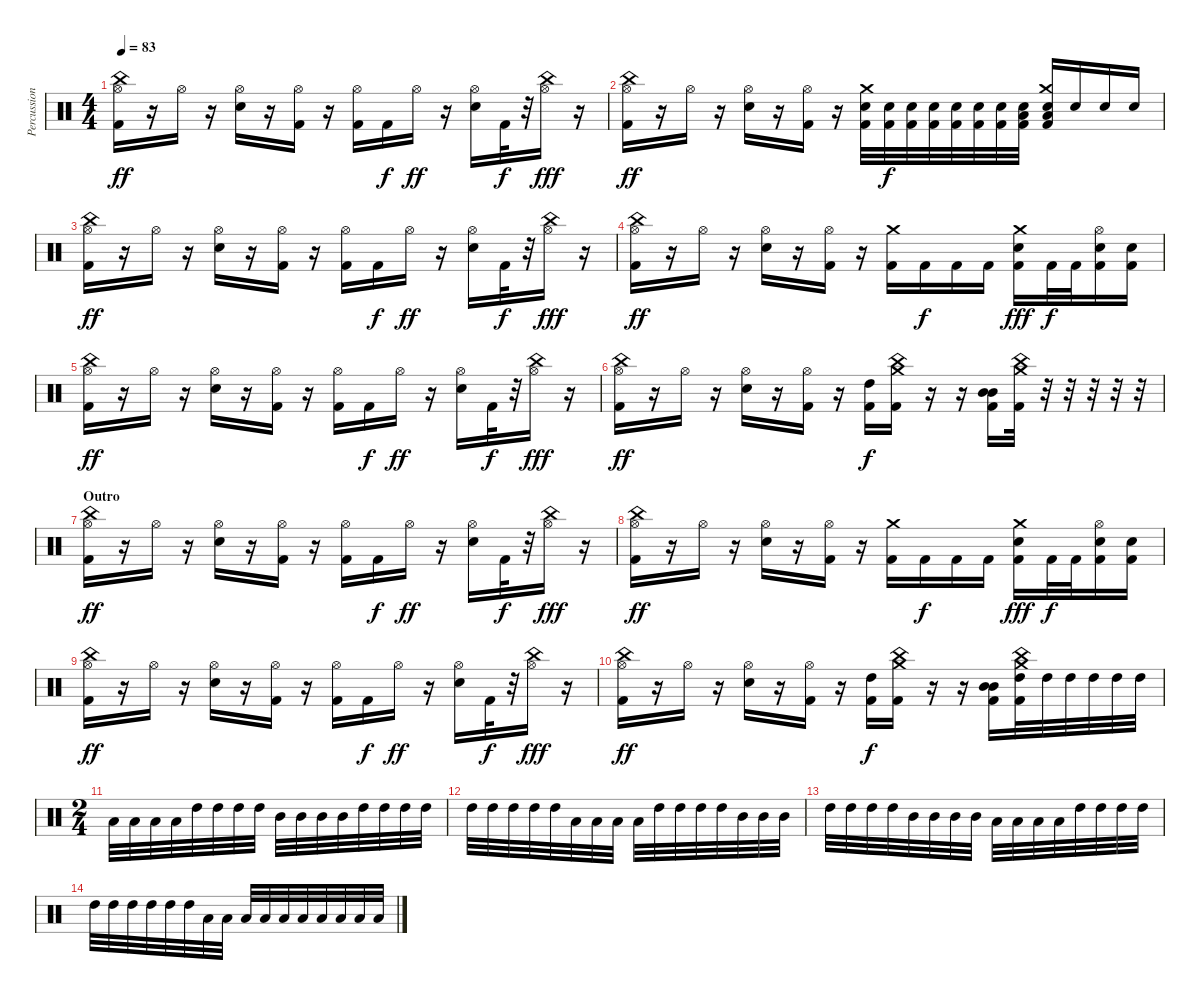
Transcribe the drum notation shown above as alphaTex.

\track ("Percussion" "Percussion") {instrument percussion}
\staff {score}
\articulation defaults
\ts (4 4)
\tempo 83
\clef neutral
\ks c
("Hi-Hat (open)" "China (hit)" "Kick (hit) 2").16{dy ff} r.16 "Hi-Hat (open)".16 r.16 ("Hi-Hat (open)" "Snare (hit) 2").16 r.16 ("Hi-Hat (open)" "Kick (hit) 2").16 r.16 ("Hi-Hat (open)" "Kick (hit) 2").16 "Kick (hit) 2".16{dy f} "Hi-Hat (open)".16{dy ff} r.16 ("Hi-Hat (open)" "Snare (hit) 2").16 "Kick (hit) 2".32{dy f} r.32 ("China (hit)" "Hi-Hat (open)").16{dy fff} r.16 |
("Hi-Hat (open)" "China (hit)" "Kick (hit) 2").16{dy ff} r.16 "Hi-Hat (open)".16 r.16 ("Hi-Hat (open)" "Snare (hit) 2").16 r.16 ("Hi-Hat (open)" "Kick (hit) 2").16 r.16 ("Crash medium (hit)" "Snare (hit) 2" "Kick (hit) 2").32 ("Snare (hit) 2" "Kick (hit) 2").32{dy f} ("Snare (hit) 2" "Kick (hit) 2").32 ("Snare (hit) 2" "Kick (hit) 2").32 ("Snare (hit) 2" "Kick (hit) 2").32 ("Snare (hit) 2" "Kick (hit) 2").32 ("Snare (hit) 2" "Kick (hit) 2").32 ("Snare (hit) 2" "Low Tom (hit)" "Kick (hit) 2").32 ("Crash medium (hit)" "Low Tom (hit)" "Snare (hit) 2" "Kick (hit) 2").16 "Snare (hit) 2".16 "Snare (hit) 2".16 "Snare (hit) 2".16 |
("Hi-Hat (open)" "China (hit)" "Kick (hit) 2").16{dy ff} r.16 "Hi-Hat (open)".16 r.16 ("Hi-Hat (open)" "Snare (hit) 2").16 r.16 ("Hi-Hat (open)" "Kick (hit) 2").16 r.16 ("Hi-Hat (open)" "Kick (hit) 2").16 "Kick (hit) 2".16{dy f} "Hi-Hat (open)".16{dy ff} r.16 ("Hi-Hat (open)" "Snare (hit) 2").16 "Kick (hit) 2".32{dy f} r.32 ("China (hit)" "Hi-Hat (open)").16{dy fff} r.16 |
("Hi-Hat (open)" "China (hit)" "Kick (hit) 2").16{dy ff} r.16 "Hi-Hat (open)".16 r.16 ("Hi-Hat (open)" "Snare (hit) 2").16 r.16 ("Hi-Hat (open)" "Kick (hit) 2").16 r.16 ("Crash medium (hit)" "Kick (hit) 2").16 "Kick (hit) 2".16{dy f} "Kick (hit) 2".16 "Kick (hit) 2".16 ("Crash medium (hit)" "Snare (hit) 2" "Kick (hit) 2").16{dy fff} "Kick (hit) 2".32{dy f} "Kick (hit) 2".32 ("Hi-Hat (open)" "Snare (hit) 2" "Kick (hit) 2").16 ("Snare (hit) 2" "Kick (hit) 2").16 |
("Hi-Hat (open)" "China (hit)" "Kick (hit) 2").16{dy ff} r.16 "Hi-Hat (open)".16 r.16 ("Hi-Hat (open)" "Snare (hit) 2").16 r.16 ("Hi-Hat (open)" "Kick (hit) 2").16 r.16 ("Hi-Hat (open)" "Kick (hit) 2").16 "Kick (hit) 2".16{dy f} "Hi-Hat (open)".16{dy ff} r.16 ("Hi-Hat (open)" "Snare (hit) 2").16 "Kick (hit) 2".32{dy f} r.32 ("China (hit)" "Hi-Hat (open)").16{dy fff} r.16 |
("Hi-Hat (open)" "China (hit)" "Kick (hit) 2").16{dy ff} r.16 "Hi-Hat (open)".16 r.16 ("Hi-Hat (open)" "Snare (hit) 2").16 r.16 ("Hi-Hat (open)" "Kick (hit) 2").16 r.16 ("High Tom (hit)" "Kick (hit) 2").16{dy f} ("Crash medium (hit)" "China (hit)" "Kick (hit) 2").16 r.16 r.16 ("Mid Tom (hit)" "Mid Tom (hit)" "Kick (hit) 2").16 ("Crash medium (hit)" "China (hit)" "Kick (hit) 2").32 r.32 r.32 r.32 r.32 r.32 |
\section ("" "Outro")
("Hi-Hat (open)" "China (hit)" "Kick (hit) 2").16{dy ff} r.16 "Hi-Hat (open)".16 r.16 ("Hi-Hat (open)" "Snare (hit) 2").16 r.16 ("Hi-Hat (open)" "Kick (hit) 2").16 r.16 ("Hi-Hat (open)" "Kick (hit) 2").16 "Kick (hit) 2".16{dy f} "Hi-Hat (open)".16{dy ff} r.16 ("Hi-Hat (open)" "Snare (hit) 2").16 "Kick (hit) 2".32{dy f} r.32 ("China (hit)" "Hi-Hat (open)").16{dy fff} r.16 |
("Hi-Hat (open)" "China (hit)" "Kick (hit) 2").16{dy ff} r.16 "Hi-Hat (open)".16 r.16 ("Hi-Hat (open)" "Snare (hit) 2").16 r.16 ("Hi-Hat (open)" "Kick (hit) 2").16 r.16 ("Crash medium (hit)" "Kick (hit) 2").16 "Kick (hit) 2".16{dy f} "Kick (hit) 2".16 "Kick (hit) 2".16 ("Crash medium (hit)" "Snare (hit) 2" "Kick (hit) 2").16{dy fff} "Kick (hit) 2".32{dy f} "Kick (hit) 2".32 ("Hi-Hat (open)" "Snare (hit) 2" "Kick (hit) 2").16 ("Snare (hit) 2" "Kick (hit) 2").16 |
("Hi-Hat (open)" "China (hit)" "Kick (hit) 2").16{dy ff} r.16 "Hi-Hat (open)".16 r.16 ("Hi-Hat (open)" "Snare (hit) 2").16 r.16 ("Hi-Hat (open)" "Kick (hit) 2").16 r.16 ("Hi-Hat (open)" "Kick (hit) 2").16 "Kick (hit) 2".16{dy f} "Hi-Hat (open)".16{dy ff} r.16 ("Hi-Hat (open)" "Snare (hit) 2").16 "Kick (hit) 2".32{dy f} r.32 ("China (hit)" "Hi-Hat (open)").16{dy fff} r.16 |
("Hi-Hat (open)" "China (hit)" "Kick (hit) 2").16{dy ff} r.16 "Hi-Hat (open)".16 r.16 ("Hi-Hat (open)" "Snare (hit) 2").16 r.16 ("Hi-Hat (open)" "Kick (hit) 2").16 r.16 ("High Tom (hit)" "Kick (hit) 2").16{dy f} ("Crash medium (hit)" "China (hit)" "Kick (hit) 2").16 r.16 r.16 ("Mid Tom (hit)" "Mid Tom (hit)" "Kick (hit) 2").16 ("Crash medium (hit)" "China (hit)" "High Tom (hit)" "Kick (hit) 2").32 "High Tom (hit)".32 "High Tom (hit)".32 "High Tom (hit)".32 "High Tom (hit)".32 "High Tom (hit)".32 |
\ts (2 4)
"Low Tom (hit)".32 "Low Tom (hit)".32 "Low Tom (hit)".32 "Low Tom (hit)".32 "High Tom (hit)".32 "High Tom (hit)".32 "High Tom (hit)".32 "High Tom (hit)".32 "Mid Tom (hit)".32 "Mid Tom (hit)".32 "Mid Tom (hit)".32 "Mid Tom (hit)".32 "High Tom (hit)".32 "High Tom (hit)".32 "High Tom (hit)".32 "High Tom (hit)".32 |
"High Tom (hit)".32 "High Tom (hit)".32 "High Tom (hit)".32 "High Tom (hit)".32 "High Tom (hit)".32 "Low Tom (hit)".32 "Low Tom (hit)".32 "Low Tom (hit)".32 "Low Tom (hit)".32 "High Tom (hit)".32 "High Tom (hit)".32 "High Tom (hit)".32 "High Tom (hit)".32 "Mid Tom (hit)".32 "Mid Tom (hit)".32 "Mid Tom (hit)".32 |
"High Tom (hit)".32 "High Tom (hit)".32 "High Tom (hit)".32 "High Tom (hit)".32 "Mid Tom (hit)".32 "Mid Tom (hit)".32 "Mid Tom (hit)".32 "Mid Tom (hit)".32 "Low Tom (hit)".32 "Low Tom (hit)".32 "Low Tom (hit)".32 "Low Tom (hit)".32 "High Tom (hit)".32 "High Tom (hit)".32 "High Tom (hit)".32 "High Tom (hit)".32 |
"High Tom (hit)".32 "High Tom (hit)".32 "High Tom (hit)".32 "High Tom (hit)".32 "High Tom (hit)".32 "High Tom (hit)".32 "Low Tom (hit)".32 "Low Tom (hit)".32 "Low Tom (hit)".32 "Low Tom (hit)".32 "Low Tom (hit)".32 "Low Tom (hit)".32 "Low Tom (hit)".32 "Low Tom (hit)".32 "Low Tom (hit)".32 "Low Tom (hit)".32
